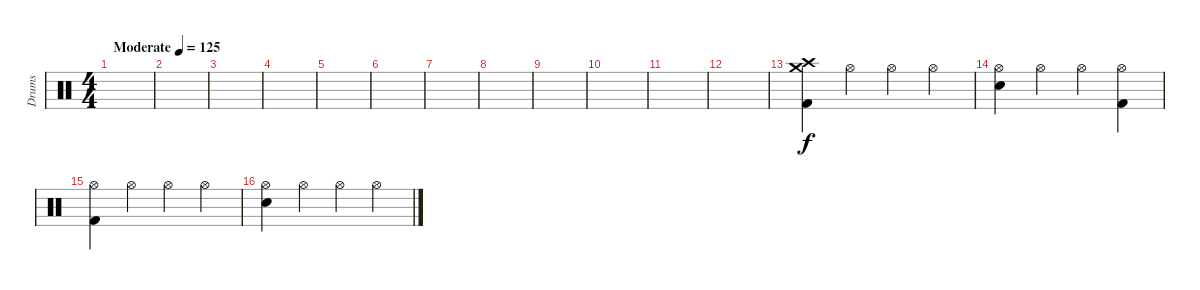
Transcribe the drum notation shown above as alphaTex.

\track ("Drums" "Drums") {instrument percussion}
\staff {score}
\articulation defaults
\ts (4 4)
\tempo (125 "Moderate")
\clef neutral
\ks c
|
|
|
|
|
|
|
|
|
|
|
|
("Crash medium (hit)" "Crash high (hit)" "Kick (hit) 2").4 "Hi-Hat (open)".4 "Hi-Hat (open)".4 "Hi-Hat (open)".4 |
("Hi-Hat (open)" "Snare (hit) 2").4 "Hi-Hat (open)".4 "Hi-Hat (open)".4 ("Hi-Hat (open)" "Kick (hit) 2").4 |
("Hi-Hat (open)" "Kick (hit) 2").4 "Hi-Hat (open)".4 "Hi-Hat (open)".4 "Hi-Hat (open)".4 |
("Hi-Hat (open)" "Snare (hit) 2").4 "Hi-Hat (open)".4 "Hi-Hat (open)".4 "Hi-Hat (open)".4
